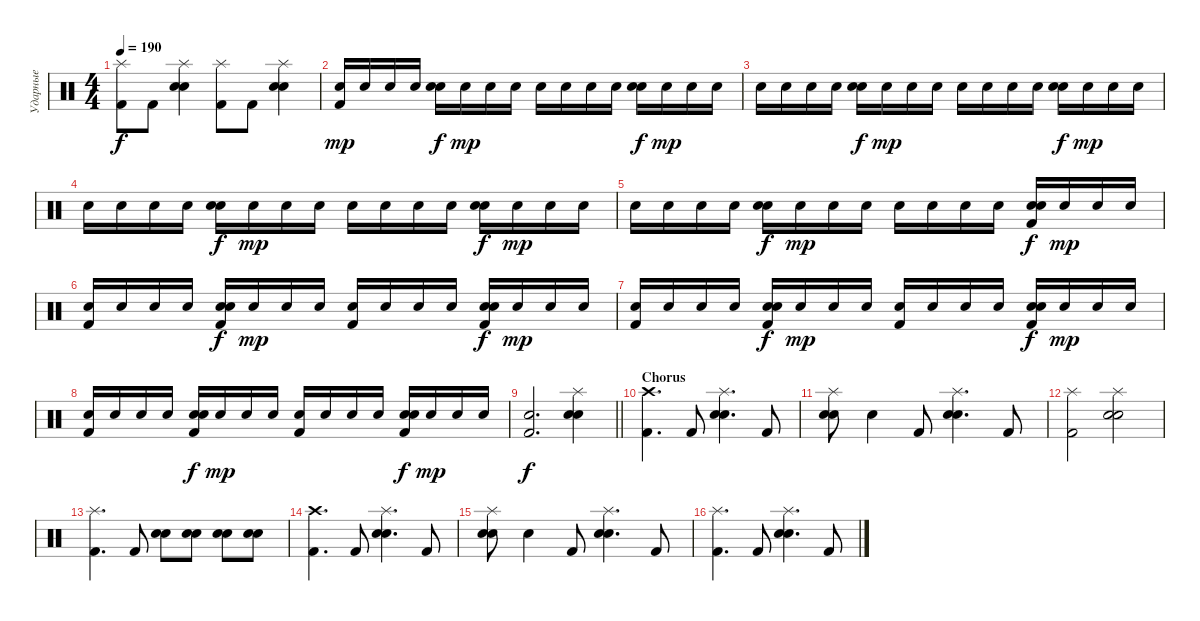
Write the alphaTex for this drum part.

\track ("Ударные" "Ударные") {instrument percussion}
\staff {score}
\articulation defaults
\ts (4 4)
\tempo 190
\clef neutral
\ks c
("Splash (hit)" "Kick (hit) 2").8{dy f} "Kick (hit) 2".8 ("Splash (hit)" "Electric Snare (hit)" "Snare (hit) 2").4 ("Splash (hit)" "Kick (hit) 2").8 "Kick (hit) 2".8 ("Splash (hit)" "Electric Snare (hit)" "Snare (hit) 2").4 |
("Electric Snare (hit)" "Kick (hit) 2").16{dy mp} "Electric Snare (hit)".16 "Electric Snare (hit)".16 "Electric Snare (hit)".16 ("Electric Snare (hit)" "Snare (hit) 2").16{dy f} "Electric Snare (hit)".16{dy mp} "Electric Snare (hit)".16 "Electric Snare (hit)".16 "Electric Snare (hit)".16 "Electric Snare (hit)".16 "Electric Snare (hit)".16 "Electric Snare (hit)".16 ("Electric Snare (hit)" "Snare (hit) 2").16{dy f} "Electric Snare (hit)".16{dy mp} "Electric Snare (hit)".16 "Electric Snare (hit)".16 |
"Electric Snare (hit)".16 "Electric Snare (hit)".16 "Electric Snare (hit)".16 "Electric Snare (hit)".16 ("Electric Snare (hit)" "Snare (hit) 2").16{dy f} "Electric Snare (hit)".16{dy mp} "Electric Snare (hit)".16 "Electric Snare (hit)".16 "Electric Snare (hit)".16 "Electric Snare (hit)".16 "Electric Snare (hit)".16 "Electric Snare (hit)".16 ("Electric Snare (hit)" "Snare (hit) 2").16{dy f} "Electric Snare (hit)".16{dy mp} "Electric Snare (hit)".16 "Electric Snare (hit)".16 |
"Electric Snare (hit)".16 "Electric Snare (hit)".16 "Electric Snare (hit)".16 "Electric Snare (hit)".16 ("Electric Snare (hit)" "Snare (hit) 2").16{dy f} "Electric Snare (hit)".16{dy mp} "Electric Snare (hit)".16 "Electric Snare (hit)".16 "Electric Snare (hit)".16 "Electric Snare (hit)".16 "Electric Snare (hit)".16 "Electric Snare (hit)".16 ("Electric Snare (hit)" "Snare (hit) 2").16{dy f} "Electric Snare (hit)".16{dy mp} "Electric Snare (hit)".16 "Electric Snare (hit)".16 |
"Electric Snare (hit)".16 "Electric Snare (hit)".16 "Electric Snare (hit)".16 "Electric Snare (hit)".16 ("Electric Snare (hit)" "Snare (hit) 2").16{dy f} "Electric Snare (hit)".16{dy mp} "Electric Snare (hit)".16 "Electric Snare (hit)".16 "Electric Snare (hit)".16 "Electric Snare (hit)".16 "Electric Snare (hit)".16 "Electric Snare (hit)".16 ("Electric Snare (hit)" "Snare (hit) 2" "Kick (hit) 2").16{dy f} "Electric Snare (hit)".16{dy mp} "Electric Snare (hit)".16 "Electric Snare (hit)".16 |
("Electric Snare (hit)" "Kick (hit) 2").16 "Electric Snare (hit)".16 "Electric Snare (hit)".16 "Electric Snare (hit)".16 ("Electric Snare (hit)" "Snare (hit) 2" "Kick (hit) 2").16{dy f} "Electric Snare (hit)".16{dy mp} "Electric Snare (hit)".16 "Electric Snare (hit)".16 ("Electric Snare (hit)" "Kick (hit) 2").16 "Electric Snare (hit)".16 "Electric Snare (hit)".16 "Electric Snare (hit)".16 ("Electric Snare (hit)" "Snare (hit) 2" "Kick (hit) 2").16{dy f} "Electric Snare (hit)".16{dy mp} "Electric Snare (hit)".16 "Electric Snare (hit)".16 |
("Electric Snare (hit)" "Kick (hit) 2").16 "Electric Snare (hit)".16 "Electric Snare (hit)".16 "Electric Snare (hit)".16 ("Electric Snare (hit)" "Snare (hit) 2" "Kick (hit) 2").16{dy f} "Electric Snare (hit)".16{dy mp} "Electric Snare (hit)".16 "Electric Snare (hit)".16 ("Electric Snare (hit)" "Kick (hit) 2").16 "Electric Snare (hit)".16 "Electric Snare (hit)".16 "Electric Snare (hit)".16 ("Electric Snare (hit)" "Snare (hit) 2" "Kick (hit) 2").16{dy f} "Electric Snare (hit)".16{dy mp} "Electric Snare (hit)".16 "Electric Snare (hit)".16 |
("Electric Snare (hit)" "Kick (hit) 2").16 "Electric Snare (hit)".16 "Electric Snare (hit)".16 "Electric Snare (hit)".16 ("Electric Snare (hit)" "Snare (hit) 2" "Kick (hit) 2").16{dy f} "Electric Snare (hit)".16{dy mp} "Electric Snare (hit)".16 "Electric Snare (hit)".16 ("Electric Snare (hit)" "Kick (hit) 2").16 "Electric Snare (hit)".16 "Electric Snare (hit)".16 "Electric Snare (hit)".16 ("Electric Snare (hit)" "Snare (hit) 2" "Kick (hit) 2").16{dy f} "Electric Snare (hit)".16{dy mp} "Electric Snare (hit)".16 "Electric Snare (hit)".16 |
\barLineRight lightlight
("Snare (hit) 2" "Kick (hit) 2").2{d dy f} ("Splash (hit)" "Electric Snare (hit)" "Snare (hit) 2").4 |
\section ("" "Chorus")
("Crash high (hit)" "Kick (hit) 2").4{d} "Kick (hit) 2".8 ("Splash (hit)" "Electric Snare (hit)" "Snare (hit) 2").4{d} "Kick (hit) 2".8 |
("Splash (hit)" "Electric Snare (hit)" "Snare (hit) 2").8 "Electric Snare (hit)".4 "Kick (hit) 2".8 ("Splash (hit)" "Electric Snare (hit)" "Snare (hit) 2").4{d} "Kick (hit) 2".8 |
("Splash (hit)" "Kick (hit) 2").2 ("Splash (hit)" "Electric Snare (hit)" "Snare (hit) 2").2 |
("Splash (hit)" "Kick (hit) 2").4{d} "Kick (hit) 2".8 ("Electric Snare (hit)" "Snare (hit) 2").8 ("Electric Snare (hit)" "Snare (hit) 2").8 ("Electric Snare (hit)" "Snare (hit) 2").8 ("Electric Snare (hit)" "Snare (hit) 2").8 |
("Crash high (hit)" "Kick (hit) 2").4{d} "Kick (hit) 2".8 ("Splash (hit)" "Electric Snare (hit)" "Snare (hit) 2").4{d} "Kick (hit) 2".8 |
("Splash (hit)" "Electric Snare (hit)" "Snare (hit) 2").8 "Electric Snare (hit)".4 "Kick (hit) 2".8 ("Splash (hit)" "Electric Snare (hit)" "Snare (hit) 2").4{d} "Kick (hit) 2".8 |
("Splash (hit)" "Kick (hit) 2").4{d} "Kick (hit) 2".8 ("Splash (hit)" "Electric Snare (hit)" "Snare (hit) 2").4{d} "Kick (hit) 2".8
